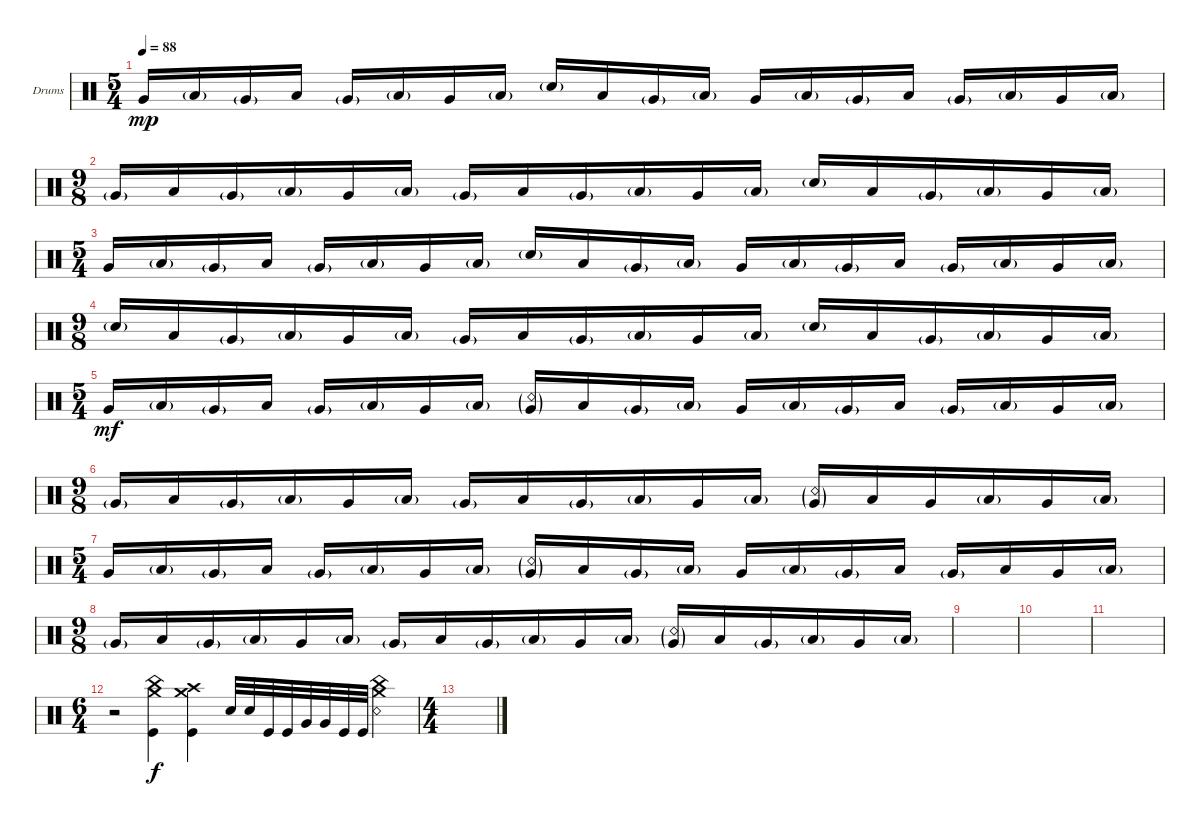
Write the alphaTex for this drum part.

\defaultSystemsLayout 4
\bracketExtendMode groupsimilarinstruments
\firstSystemTrackNameOrientation horizontal
\otherSystemsTrackNameOrientation horizontal
\track ("Drumkit" "Drums") {instrument percussion}
\staff {score}
\articulation defaults
\ts (5 4)
\tempo 88
\clef neutral
\ks c "Very Low Tom (hit)".16{dy mp} "Low Tom (hit)"{g}.16 "Very Low Tom (hit)"{g}.16 "Low Tom (hit)".16 "Very Low Tom (hit)"{g}.16 "Low Tom (hit)"{g}.16 "Very Low Tom (hit)".16 "Low Tom (hit)"{g}.16 "Snare (hit) 2"{g}.16 "Low Tom (hit)".16 "Very Low Tom (hit)"{g}.16 "Low Tom (hit)"{g}.16 "Very Low Tom (hit)".16 "Low Tom (hit)"{g}.16 "Very Low Tom (hit)"{g}.16 "Low Tom (hit)".16 "Very Low Tom (hit)"{g}.16 "Low Tom (hit)"{g}.16 "Very Low Tom (hit)".16 "Low Tom (hit)"{g}.16
|
\ts (9 8)
"Very Low Tom (hit)"{g}.16 "Low Tom (hit)".16 "Very Low Tom (hit)"{g}.16 "Low Tom (hit)"{g}.16 "Very Low Tom (hit)".16 "Low Tom (hit)"{g}.16 "Very Low Tom (hit)"{g}.16 "Low Tom (hit)".16 "Very Low Tom (hit)"{g}.16 "Low Tom (hit)"{g}.16 "Very Low Tom (hit)".16 "Low Tom (hit)"{g}.16 "Snare (hit) 2"{g}.16 "Low Tom (hit)".16 "Very Low Tom (hit)"{g}.16 "Low Tom (hit)"{g}.16 "Very Low Tom (hit)".16 "Low Tom (hit)"{g}.16 |
\ts (5 4)
"Very Low Tom (hit)".16 "Low Tom (hit)"{g}.16 "Very Low Tom (hit)"{g}.16 "Low Tom (hit)".16 "Very Low Tom (hit)"{g}.16 "Low Tom (hit)"{g}.16 "Very Low Tom (hit)".16 "Low Tom (hit)"{g}.16 "Snare (hit) 2"{g}.16 "Low Tom (hit)".16 "Very Low Tom (hit)"{g}.16 "Low Tom (hit)"{g}.16 "Very Low Tom (hit)".16 "Low Tom (hit)"{g}.16 "Very Low Tom (hit)"{g}.16 "Low Tom (hit)".16 "Very Low Tom (hit)"{g}.16 "Low Tom (hit)"{g}.16 "Very Low Tom (hit)".16 "Low Tom (hit)"{g}.16 |
\ts (9 8)
"Snare (hit) 2"{g}.16 "Low Tom (hit)".16 "Very Low Tom (hit)"{g}.16 "Low Tom (hit)"{g}.16 "Very Low Tom (hit)".16 "Low Tom (hit)"{g}.16 "Very Low Tom (hit)"{g}.16 "Low Tom (hit)".16 "Very Low Tom (hit)"{g}.16 "Low Tom (hit)"{g}.16 "Very Low Tom (hit)".16 "Low Tom (hit)"{g}.16 "Snare (hit) 2"{g}.16 "Low Tom (hit)".16 "Very Low Tom (hit)"{g}.16 "Low Tom (hit)"{g}.16 "Very Low Tom (hit)".16 "Low Tom (hit)"{g}.16 |
\ts (5 4)
"Very Low Tom (hit)".16{dy mf} "Low Tom (hit)"{g}.16 "Very Low Tom (hit)"{g}.16 "Low Tom (hit)".16 "Very Low Tom (hit)"{g}.16 "Low Tom (hit)"{g}.16 "Very Low Tom (hit)".16 "Low Tom (hit)"{g}.16 ("Snare (rim shot)"{g} "Very Low Tom (hit)"{g}).16 "Low Tom (hit)".16 "Very Low Tom (hit)"{g}.16 "Low Tom (hit)"{g}.16 "Very Low Tom (hit)".16 "Low Tom (hit)"{g}.16 "Very Low Tom (hit)"{g}.16 "Low Tom (hit)".16 "Very Low Tom (hit)"{g}.16 "Low Tom (hit)"{g}.16 "Very Low Tom (hit)".16 "Low Tom (hit)"{g}.16 |
\ts (9 8)
"Very Low Tom (hit)"{g}.16 "Low Tom (hit)".16 "Very Low Tom (hit)"{g}.16 "Low Tom (hit)"{g}.16 "Very Low Tom (hit)".16 "Low Tom (hit)"{g}.16 "Very Low Tom (hit)"{g}.16 "Low Tom (hit)".16 "Very Low Tom (hit)"{g}.16 "Low Tom (hit)"{g}.16 "Very Low Tom (hit)".16 "Low Tom (hit)"{g}.16 ("Snare (rim shot)"{g} "Very Low Tom (hit)"{g}).16 "Low Tom (hit)".16 "Very Low Tom (hit)".16 "Low Tom (hit)"{g}.16 "Very Low Tom (hit)".16 "Low Tom (hit)"{g}.16 |
\ts (5 4)
"Very Low Tom (hit)".16 "Low Tom (hit)"{g}.16 "Very Low Tom (hit)"{g}.16 "Low Tom (hit)".16 "Very Low Tom (hit)"{g}.16 "Low Tom (hit)"{g}.16 "Very Low Tom (hit)".16 "Low Tom (hit)"{g}.16 ("Snare (rim shot)"{g} "Very Low Tom (hit)"{g}).16 "Low Tom (hit)".16 "Very Low Tom (hit)"{g}.16 "Low Tom (hit)"{g}.16 "Very Low Tom (hit)".16 "Low Tom (hit)"{g}.16 "Very Low Tom (hit)"{g}.16 "Low Tom (hit)".16 "Very Low Tom (hit)"{g}.16 "Low Tom (hit)".16 "Very Low Tom (hit)".16 "Low Tom (hit)"{g}.16 |
\ts (9 8)
"Very Low Tom (hit)"{g}.16 "Low Tom (hit)".16 "Very Low Tom (hit)"{g}.16 "Low Tom (hit)"{g}.16 "Very Low Tom (hit)".16 "Low Tom (hit)"{g}.16 "Very Low Tom (hit)"{g}.16 "Low Tom (hit)".16 "Very Low Tom (hit)"{g}.16 "Low Tom (hit)"{g}.16 "Very Low Tom (hit)".16 "Low Tom (hit)"{g}.16 ("Snare (rim shot)"{g} "Very Low Tom (hit)"{g}).16 "Low Tom (hit)".16 "Very Low Tom (hit)"{g}.16 "Low Tom (hit)"{g}.16 "Very Low Tom (hit)".16 "Low Tom (hit)"{g}.16 |
|
|
|
\ts (6 4)
r.2 ("Kick (hit)" "China (hit)" "Crash medium (hit)").4{dy f} ("Crash medium (hit)" "Crash high (hit)" "Kick (hit)").4 "Snare (hit) 2".32 "Snare (hit) 2".32 "Kick (hit)".32 "Kick (hit)".32 "Very Low Tom (hit)".32 "Very Low Tom (hit)".32 "Kick (hit)".32 "Kick (hit)".32 ("Snare (rim shot)" "Crash medium (hit)" "China (hit)").4 |
\ts (4 4)
